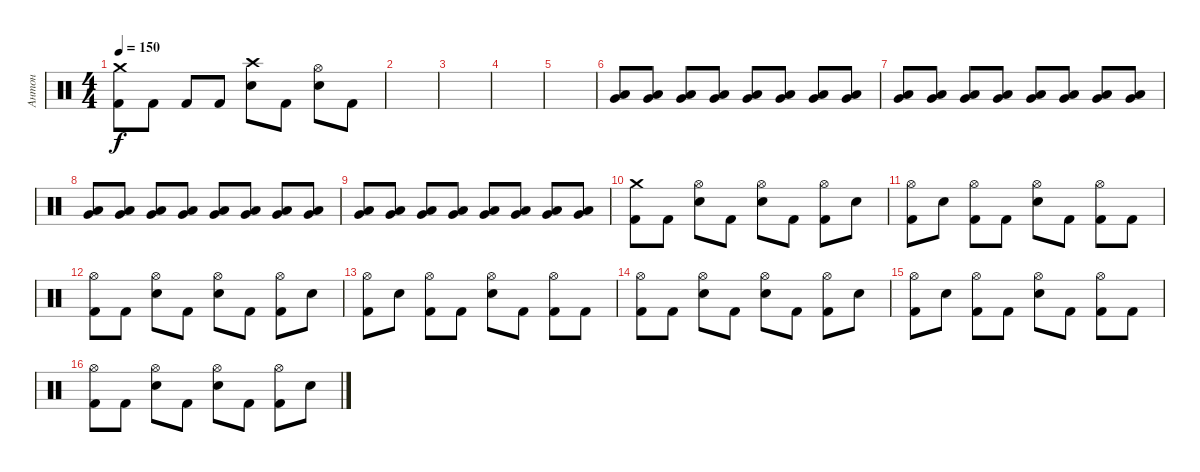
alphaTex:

\track ("Антон" "Антон") {instrument percussion}
\staff {score}
\articulation defaults
\ts (4 4)
\tempo 150
\clef neutral
\ks c
("Crash medium (hit)" "Kick (hit) 2").8{dy f} "Kick (hit) 2".8 "Kick (hit) 2".8 "Kick (hit) 2".8 ("Crash high (hit)" "Electric Snare (hit)").8 "Kick (hit) 2".8 ("Hi-Hat (open)" "Electric Snare (hit)").8 "Kick (hit) 2".8 |
|
|
|
|
("Low Tom (hit)" "Very Low Tom (hit)").8{volume 0} ("Low Tom (hit)" "Very Low Tom (hit)").8{volume 13} ("Low Tom (hit)" "Very Low Tom (hit)").8 ("Low Tom (hit)" "Very Low Tom (hit)").8 ("Low Tom (hit)" "Very Low Tom (hit)").8 ("Low Tom (hit)" "Very Low Tom (hit)").8 ("Low Tom (hit)" "Very Low Tom (hit)").8 ("Low Tom (hit)" "Very Low Tom (hit)").8 |
("Low Tom (hit)" "Very Low Tom (hit)").8 ("Low Tom (hit)" "Very Low Tom (hit)").8 ("Low Tom (hit)" "Very Low Tom (hit)").8 ("Low Tom (hit)" "Very Low Tom (hit)").8 ("Low Tom (hit)" "Very Low Tom (hit)").8 ("Low Tom (hit)" "Very Low Tom (hit)").8 ("Low Tom (hit)" "Very Low Tom (hit)").8 ("Low Tom (hit)" "Very Low Tom (hit)").8 |
("Low Tom (hit)" "Very Low Tom (hit)").8 ("Low Tom (hit)" "Very Low Tom (hit)").8 ("Low Tom (hit)" "Very Low Tom (hit)").8 ("Low Tom (hit)" "Very Low Tom (hit)").8 ("Low Tom (hit)" "Very Low Tom (hit)").8 ("Low Tom (hit)" "Very Low Tom (hit)").8 ("Low Tom (hit)" "Very Low Tom (hit)").8 ("Low Tom (hit)" "Very Low Tom (hit)").8 |
("Low Tom (hit)" "Very Low Tom (hit)").8 ("Low Tom (hit)" "Very Low Tom (hit)").8 ("Low Tom (hit)" "Very Low Tom (hit)").8 ("Low Tom (hit)" "Very Low Tom (hit)").8 ("Low Tom (hit)" "Very Low Tom (hit)").8 ("Low Tom (hit)" "Very Low Tom (hit)").8 ("Low Tom (hit)" "Very Low Tom (hit)").8 ("Low Tom (hit)" "Very Low Tom (hit)").8 |
("Crash medium (hit)" "Kick (hit) 2").8 "Kick (hit) 2".8 ("Hi-Hat (open)" "Electric Snare (hit)").8 "Kick (hit) 2".8 ("Hi-Hat (open)" "Electric Snare (hit)").8 "Kick (hit) 2".8 ("Hi-Hat (open)" "Kick (hit) 2").8 "Electric Snare (hit)".8 |
("Hi-Hat (open)" "Kick (hit) 2").8 "Electric Snare (hit)".8 ("Hi-Hat (open)" "Kick (hit) 2").8 "Kick (hit) 2".8 ("Hi-Hat (open)" "Electric Snare (hit)").8 "Kick (hit) 2".8 ("Hi-Hat (open)" "Kick (hit) 2").8 "Kick (hit) 2".8 |
("Hi-Hat (open)" "Kick (hit) 2").8 "Kick (hit) 2".8 ("Hi-Hat (open)" "Electric Snare (hit)").8 "Kick (hit) 2".8 ("Hi-Hat (open)" "Electric Snare (hit)").8 "Kick (hit) 2".8 ("Hi-Hat (open)" "Kick (hit) 2").8 "Electric Snare (hit)".8 |
("Hi-Hat (open)" "Kick (hit) 2").8 "Electric Snare (hit)".8 ("Hi-Hat (open)" "Kick (hit) 2").8 "Kick (hit) 2".8 ("Hi-Hat (open)" "Electric Snare (hit)").8 "Kick (hit) 2".8 ("Hi-Hat (open)" "Kick (hit) 2").8 "Kick (hit) 2".8 |
("Hi-Hat (open)" "Kick (hit) 2").8 "Kick (hit) 2".8 ("Hi-Hat (open)" "Electric Snare (hit)").8 "Kick (hit) 2".8 ("Hi-Hat (open)" "Electric Snare (hit)").8 "Kick (hit) 2".8 ("Hi-Hat (open)" "Kick (hit) 2").8 "Electric Snare (hit)".8 |
("Hi-Hat (open)" "Kick (hit) 2").8 "Electric Snare (hit)".8 ("Hi-Hat (open)" "Kick (hit) 2").8 "Kick (hit) 2".8 ("Hi-Hat (open)" "Electric Snare (hit)").8 "Kick (hit) 2".8 ("Hi-Hat (open)" "Kick (hit) 2").8 "Kick (hit) 2".8 |
("Hi-Hat (open)" "Kick (hit) 2").8 "Kick (hit) 2".8 ("Hi-Hat (open)" "Electric Snare (hit)").8 "Kick (hit) 2".8 ("Hi-Hat (open)" "Electric Snare (hit)").8 "Kick (hit) 2".8 ("Hi-Hat (open)" "Kick (hit) 2").8 "Electric Snare (hit)".8
